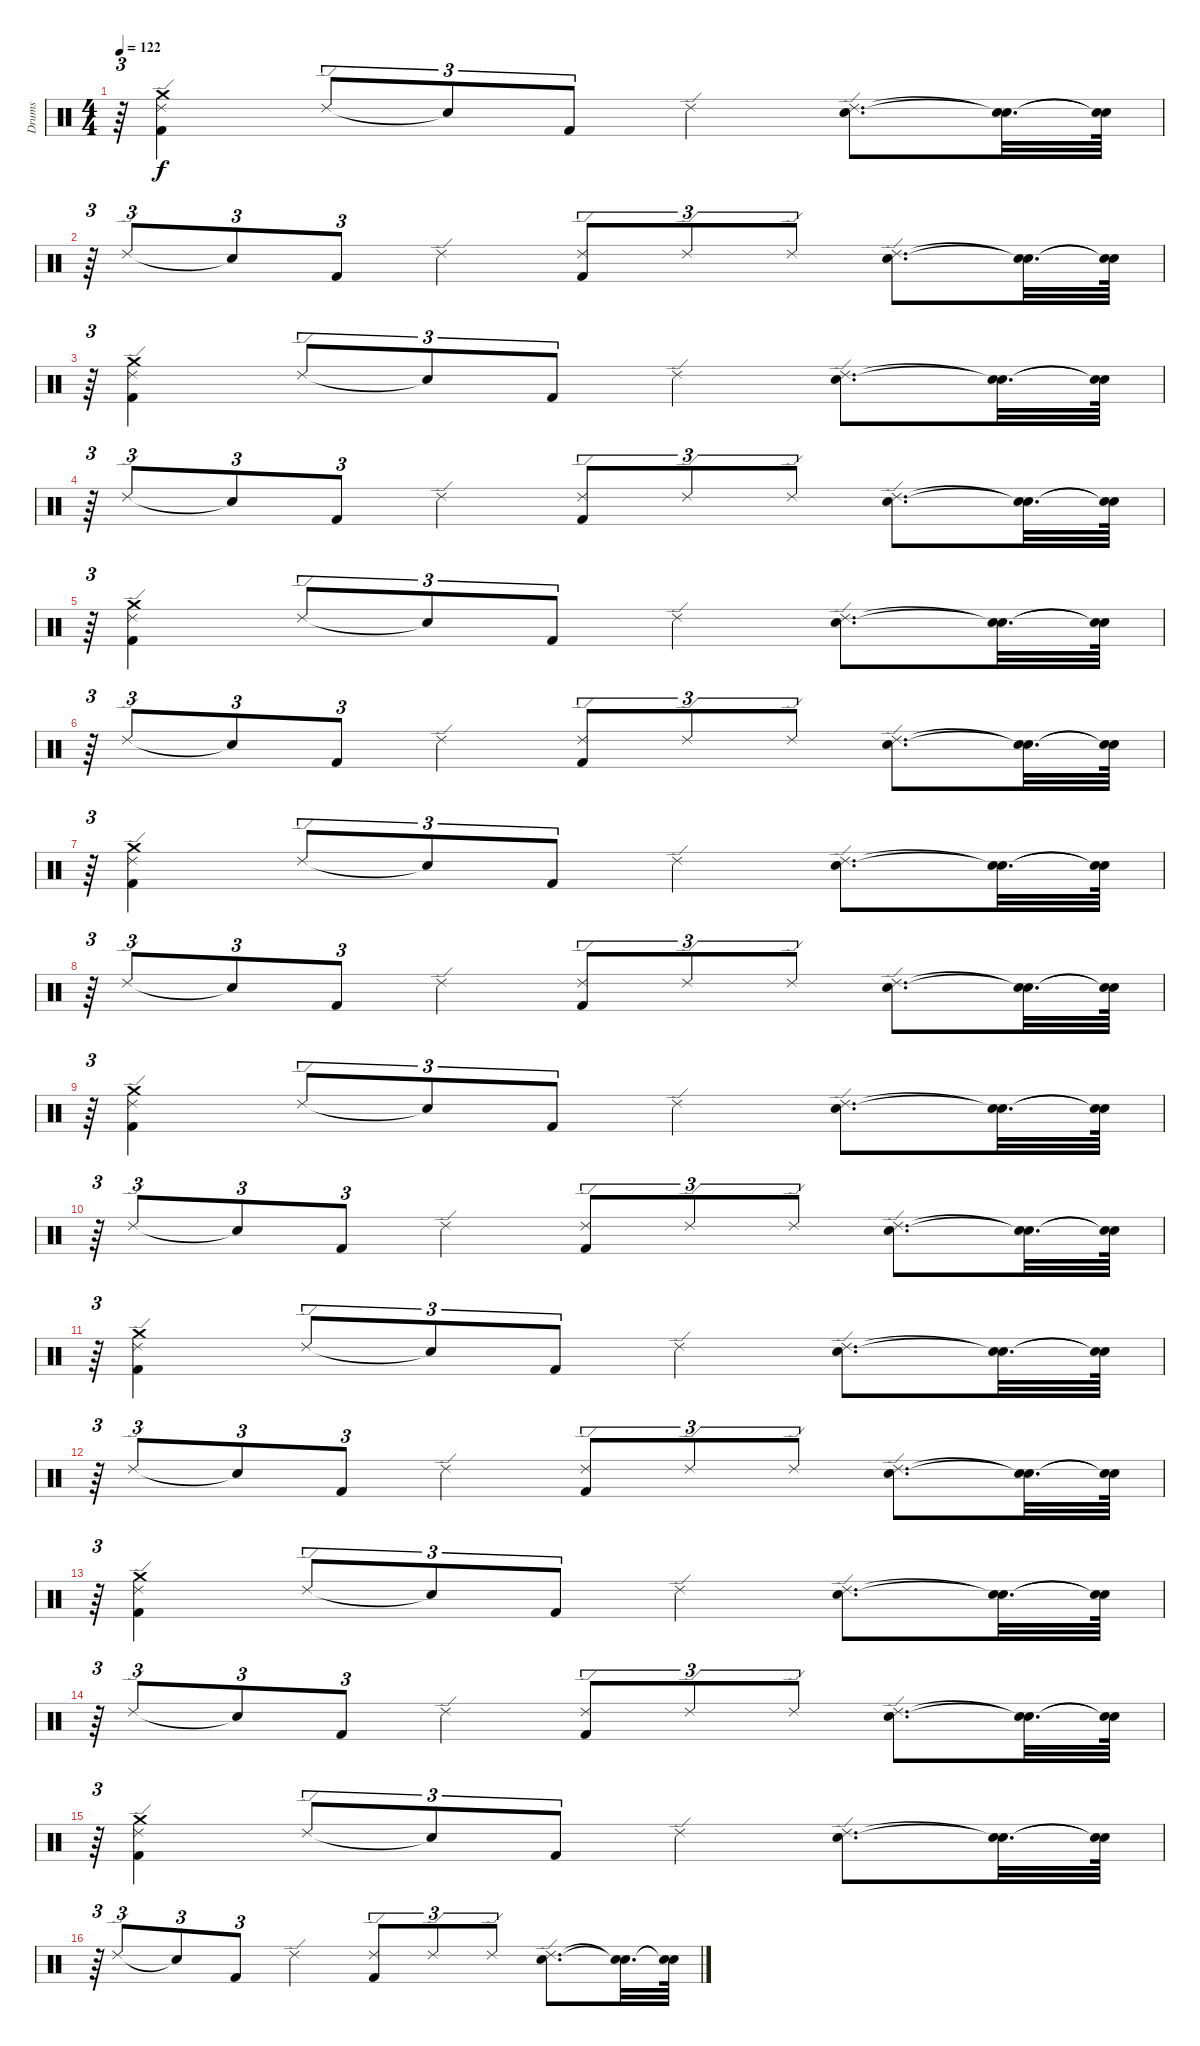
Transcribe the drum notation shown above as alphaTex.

\track ("Drums" "Drums") {instrument percussion}
\staff {score}
\articulation defaults
\ts (4 4)
\tempo 122
\clef neutral
\ks c
r.64{tu (3 2) dy f} ("Kick (hit) 2" "Ride (edge) 2" "Crash medium (hit)").4 "Ride (edge) 2".8{tu (3 2)} "Snare (hit)"{t}.8{tu (3 2)} "Kick (hit) 2".8{tu (3 2)} "Ride (edge) 2".4 ("Snare (hit) 2" "Ride (edge) 2").8{d} ("Snare (hit)"{t} "Snare (hit)"{t}).32{d} ("Snare (hit)"{t} "Snare (hit)"{t}).64 |
r.64{tu (3 2)} "Ride (edge) 2".8{tu (3 2)} "Snare (hit)"{t}.8{tu (3 2)} "Kick (hit) 2".8{tu (3 2)} "Ride (edge) 2".4 ("Kick (hit) 2" "Ride (edge) 2").8{tu (3 2)} "Ride (edge) 2".8{tu (3 2)} "Ride (edge) 2".8{tu (3 2)} ("Snare (hit) 2" "Ride (edge) 2").8{d} ("Snare (hit)"{t} "Snare (hit)"{t}).32{d} ("Snare (hit)"{t} "Snare (hit)"{t}).64 |
r.64{tu (3 2)} ("Ride (edge) 2" "Crash medium (hit)" "Kick (hit) 2").4 "Ride (edge) 2".8{tu (3 2)} "Snare (hit)"{t}.8{tu (3 2)} "Kick (hit) 2".8{tu (3 2)} "Ride (edge) 2".4 ("Ride (edge) 2" "Snare (hit) 2").8{d} ("Snare (hit)"{t} "Snare (hit)"{t}).32{d} ("Snare (hit)"{t} "Snare (hit)"{t}).64 |
r.64{tu (3 2)} "Ride (edge) 2".8{tu (3 2)} "Snare (hit)"{t}.8{tu (3 2)} "Kick (hit) 2".8{tu (3 2)} "Ride (edge) 2".4 ("Kick (hit) 2" "Ride (edge) 2").8{tu (3 2)} "Ride (edge) 2".8{tu (3 2)} "Ride (edge) 2".8{tu (3 2)} ("Ride (edge) 2" "Snare (hit) 2").8{d} ("Snare (hit)"{t} "Snare (hit)"{t}).32{d} ("Snare (hit)"{t} "Snare (hit)"{t}).64 |
r.64{tu (3 2)} ("Ride (edge) 2" "Crash medium (hit)" "Kick (hit) 2").4 "Ride (edge) 2".8{tu (3 2)} "Snare (hit)"{t}.8{tu (3 2)} "Kick (hit) 2".8{tu (3 2)} "Ride (edge) 2".4 ("Ride (edge) 2" "Snare (hit) 2").8{d} ("Snare (hit)"{t} "Snare (hit)"{t}).32{d} ("Snare (hit)"{t} "Snare (hit)"{t}).64 |
r.64{tu (3 2)} "Ride (edge) 2".8{tu (3 2)} "Snare (hit)"{t}.8{tu (3 2)} "Kick (hit) 2".8{tu (3 2)} "Ride (edge) 2".4 ("Ride (edge) 2" "Kick (hit) 2").8{tu (3 2)} "Ride (edge) 2".8{tu (3 2)} "Ride (edge) 2".8{tu (3 2)} ("Ride (edge) 2" "Snare (hit) 2").8{d} ("Snare (hit)"{t} "Snare (hit)"{t}).32{d} ("Snare (hit)"{t} "Snare (hit)"{t}).64 |
r.64{tu (3 2)} ("Ride (edge) 2" "Crash medium (hit)" "Kick (hit) 2").4 "Ride (edge) 2".8{tu (3 2)} "Snare (hit)"{t}.8{tu (3 2)} "Kick (hit) 2".8{tu (3 2)} "Ride (edge) 2".4 ("Ride (edge) 2" "Snare (hit) 2").8{d} ("Snare (hit)"{t} "Snare (hit)"{t}).32{d} ("Snare (hit)"{t} "Snare (hit)"{t}).64 |
r.64{tu (3 2)} "Ride (edge) 2".8{tu (3 2)} "Snare (hit)"{t}.8{tu (3 2)} "Kick (hit) 2".8{tu (3 2)} "Ride (edge) 2".4 ("Ride (edge) 2" "Kick (hit) 2").8{tu (3 2)} "Ride (edge) 2".8{tu (3 2)} "Ride (edge) 2".8{tu (3 2)} ("Ride (edge) 2" "Snare (hit) 2").8{d} ("Snare (hit)"{t} "Snare (hit)"{t}).32{d} ("Snare (hit)"{t} "Snare (hit)"{t}).64 |
r.64{tu (3 2)} ("Ride (edge) 2" "Crash medium (hit)" "Kick (hit) 2").4 "Ride (edge) 2".8{tu (3 2)} "Snare (hit)"{t}.8{tu (3 2)} "Kick (hit) 2".8{tu (3 2)} "Ride (edge) 2".4 ("Ride (edge) 2" "Snare (hit) 2").8{d} ("Snare (hit)"{t} "Snare (hit)"{t}).32{d} ("Snare (hit)"{t} "Snare (hit)"{t}).64 |
r.64{tu (3 2)} "Ride (edge) 2".8{tu (3 2)} "Snare (hit)"{t}.8{tu (3 2)} "Kick (hit) 2".8{tu (3 2)} "Ride (edge) 2".4 ("Kick (hit) 2" "Ride (edge) 2").8{tu (3 2)} "Ride (edge) 2".8{tu (3 2)} "Ride (edge) 2".8{tu (3 2)} ("Ride (edge) 2" "Snare (hit) 2").8{d} ("Snare (hit)"{t} "Snare (hit)"{t}).32{d} ("Snare (hit)"{t} "Snare (hit)"{t}).64 |
r.64{tu (3 2)} ("Ride (edge) 2" "Crash medium (hit)" "Kick (hit) 2").4 "Ride (edge) 2".8{tu (3 2)} "Snare (hit)"{t}.8{tu (3 2)} "Kick (hit) 2".8{tu (3 2)} "Ride (edge) 2".4 ("Ride (edge) 2" "Snare (hit) 2").8{d} ("Snare (hit)"{t} "Snare (hit)"{t}).32{d} ("Snare (hit)"{t} "Snare (hit)"{t}).64 |
r.64{tu (3 2)} "Ride (edge) 2".8{tu (3 2)} "Snare (hit)"{t}.8{tu (3 2)} "Kick (hit) 2".8{tu (3 2)} "Ride (edge) 2".4 ("Ride (edge) 2" "Kick (hit) 2").8{tu (3 2)} "Ride (edge) 2".8{tu (3 2)} "Ride (edge) 2".8{tu (3 2)} ("Ride (edge) 2" "Snare (hit) 2").8{d} ("Snare (hit)"{t} "Snare (hit)"{t}).32{d} ("Snare (hit)"{t} "Snare (hit)"{t}).64 |
r.64{tu (3 2)} ("Ride (edge) 2" "Crash medium (hit)" "Kick (hit) 2").4 "Ride (edge) 2".8{tu (3 2)} "Snare (hit)"{t}.8{tu (3 2)} "Kick (hit) 2".8{tu (3 2)} "Ride (edge) 2".4 ("Ride (edge) 2" "Snare (hit) 2").8{d} ("Snare (hit)"{t} "Snare (hit)"{t}).32{d} ("Snare (hit)"{t} "Snare (hit)"{t}).64 |
r.64{tu (3 2)} "Ride (edge) 2".8{tu (3 2)} "Snare (hit)"{t}.8{tu (3 2)} "Kick (hit) 2".8{tu (3 2)} "Ride (edge) 2".4 ("Ride (edge) 2" "Kick (hit) 2").8{tu (3 2)} "Ride (edge) 2".8{tu (3 2)} "Ride (edge) 2".8{tu (3 2)} ("Ride (edge) 2" "Snare (hit) 2").8{d} ("Snare (hit)"{t} "Snare (hit)"{t}).32{d} ("Snare (hit)"{t} "Snare (hit)"{t}).64 |
r.64{tu (3 2)} ("Ride (edge) 2" "Crash medium (hit)" "Kick (hit) 2").4 "Ride (edge) 2".8{tu (3 2)} "Snare (hit)"{t}.8{tu (3 2)} "Kick (hit) 2".8{tu (3 2)} "Ride (edge) 2".4 ("Ride (edge) 2" "Snare (hit) 2").8{d} ("Snare (hit)"{t} "Snare (hit)"{t}).32{d} ("Snare (hit)"{t} "Snare (hit)"{t}).64 |
r.64{tu (3 2)} "Ride (edge) 2".8{tu (3 2)} "Snare (hit)"{t}.8{tu (3 2)} "Kick (hit) 2".8{tu (3 2)} "Ride (edge) 2".4 ("Ride (edge) 2" "Kick (hit) 2").8{tu (3 2)} "Ride (edge) 2".8{tu (3 2)} "Ride (edge) 2".8{tu (3 2)} ("Ride (edge) 2" "Snare (hit) 2").8{d} ("Snare (hit)"{t} "Snare (hit)"{t}).32{d} ("Snare (hit)"{t} "Snare (hit)"{t}).64
